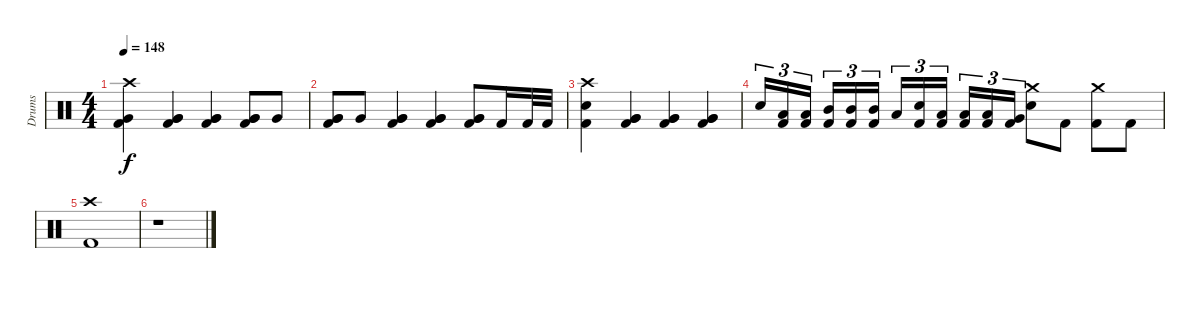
\track ("Drums" "Drums") {instrument percussion}
\staff {score}
\articulation defaults
\ts (4 4)
\tempo 148
\clef neutral
\ks c
("Crash high (hit)" "Very Low Tom (hit)" "Kick (hit) 2").4{dy f} ("Very Low Tom (hit)" "Very Low Tom (hit)" "Kick (hit) 2").4 ("Very Low Tom (hit)" "Very Low Tom (hit)" "Kick (hit) 2").4 ("Very Low Tom (hit)" "Very Low Tom (hit)" "Kick (hit) 2").8 "Very Low Tom (hit)".8 |
("Very Low Tom (hit)" "Very Low Tom (hit)" "Kick (hit) 2").8 "Very Low Tom (hit)".8 ("Very Low Tom (hit)" "Very Low Tom (hit)" "Kick (hit) 2").4 ("Very Low Tom (hit)" "Very Low Tom (hit)" "Kick (hit) 2").4 ("Very Low Tom (hit)" "Very Low Tom (hit)" "Kick (hit) 2").8 "Kick (hit) 2".16 "Kick (hit) 2".32 "Kick (hit) 2".32 |
("Crash high (hit)" "Electric Snare (hit)" "Kick (hit) 2").4 ("Very Low Tom (hit)" "Very Low Tom (hit)" "Kick (hit) 2").4 ("Very Low Tom (hit)" "Very Low Tom (hit)" "Kick (hit) 2").4 ("Very Low Tom (hit)" "Very Low Tom (hit)" "Kick (hit) 2").4 |
"Electric Snare (hit)".16{tu (3 2)} ("Low Tom (hit)" "Kick (hit) 2").16{tu (3 2)} ("Low Tom (hit)" "Kick (hit) 2").16{tu (3 2) beam splitsecondary} ("Mid Tom (hit)" "Kick (hit) 2").16{tu (3 2)} ("Mid Tom (hit)" "Kick (hit) 2").16{tu (3 2)} ("Mid Tom (hit)" "Kick (hit) 2").16{tu (3 2)} "Low Tom (hit)".16{tu (3 2)} ("Electric Snare (hit)" "Kick (hit) 2").16{tu (3 2)} ("Low Tom (hit)" "Kick (hit) 2").16{tu (3 2) beam splitsecondary} ("Low Tom (hit)" "Kick (hit) 2").16{tu (3 2)} ("Low Tom (hit)" "Kick (hit) 2").16{tu (3 2)} ("Very Low Tom (hit)" "Kick (hit) 2").16{tu (3 2)} ("Crash medium (hit)" "Electric Snare (hit)").8 "Kick (hit) 2".8 ("Crash medium (hit)" "Kick (hit) 2").8 "Kick (hit) 2".8 |
("Crash high (hit)" "Kick (hit) 2").1 |
r.1
